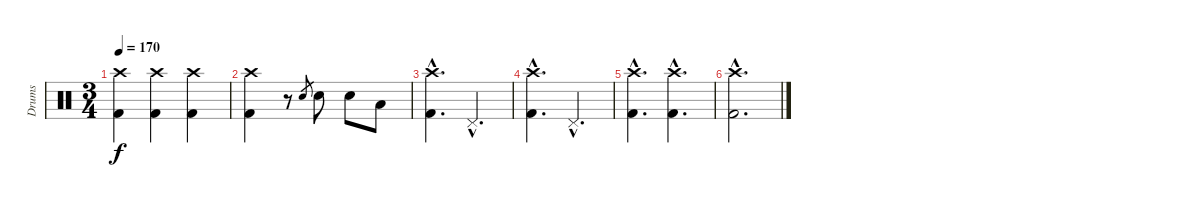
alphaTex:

\track ("Drums" "Drums") {instrument percussion}
\staff {score}
\articulation defaults
\ts (3 4)
\tempo 170
\clef neutral
\ks c
("Crash high (hit)" "Kick (hit) 2").4{dy f} ("Crash high (hit)" "Kick (hit) 2").4 ("Crash high (hit)" "Kick (hit) 2").4 |
("Crash high (hit)" "Kick (hit) 2").4 r.8 "Electric Snare (hit)".8{gr} "Electric Snare (hit)".8 "Electric Snare (hit)".8 "Low Tom (hit)".8 |
("Crash high (hit)"{hac} "Kick (hit) 2"{hac}).4{d} "Pedal Hi-Hat (hit)"{hac}.4{d} |
("Crash high (hit)"{hac} "Kick (hit) 2"{hac}).4{d} "Pedal Hi-Hat (hit)"{hac}.4{d} |
("Crash high (hit)"{hac} "Kick (hit) 2"{hac}).4{d} ("Crash high (hit)"{hac} "Kick (hit) 2"{hac}).4{d} |
("Crash high (hit)"{hac} "Kick (hit) 2"{hac}).2{d}
